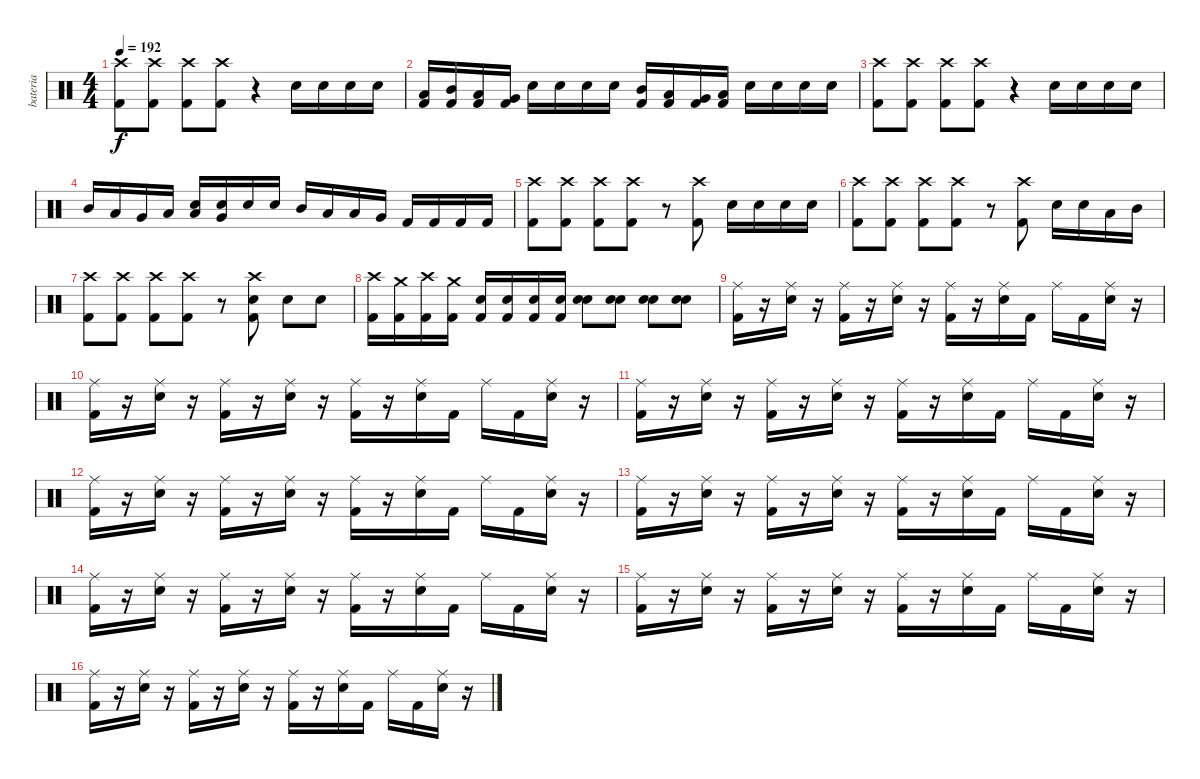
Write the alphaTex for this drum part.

\track ("bateria" "bateria") {instrument percussion}
\staff {score}
\articulation defaults
\ts (4 4)
\tempo 192
\clef neutral
\ks c
("Crash high (hit)" "Kick (hit) 2").8{dy f} ("Crash high (hit)" "Kick (hit) 2").8 ("Crash high (hit)" "Kick (hit) 2").8 ("Crash high (hit)" "Kick (hit) 2").8 r.4 "Snare (hit) 2".16 "Snare (hit) 2".16 "Snare (hit) 2".16 "Snare (hit) 2".16 |
("Low Tom (hit)" "Kick (hit) 2").16 ("Mid Tom (hit)" "Kick (hit) 2").16 ("Low Floor Tom (hit)" "Kick (hit) 2").16 ("Very Low Tom (hit)" "Kick (hit) 2").16 "Snare (hit) 2".16 "Snare (hit) 2".16 "Snare (hit) 2".16 "Snare (hit) 2".16 ("Mid Tom (hit)" "Kick (hit) 2").16 ("Low Tom (hit)" "Kick (hit) 2").16 ("Very Low Tom (hit)" "Kick (hit) 2").16 ("Low Floor Tom (hit)" "Kick (hit) 2").16 "Snare (hit) 2".16 "Snare (hit) 2".16 "Snare (hit) 2".16 "Snare (hit) 2".16 |
("Crash high (hit)" "Kick (hit) 2").8 ("Crash high (hit)" "Kick (hit) 2").8 ("Crash high (hit)" "Kick (hit) 2").8 ("Crash high (hit)" "Kick (hit) 2").8 r.4 "Snare (hit) 2".16 "Snare (hit) 2".16 "Snare (hit) 2".16 "Snare (hit) 2".16 |
"Mid Tom (hit)".16 "Low Tom (hit)".16 "Very Low Tom (hit)".16 "Low Floor Tom (hit)".16 ("Low Tom (hit)" "Snare (hit) 2").16 ("Very Low Tom (hit)" "Snare (hit) 2").16 "Snare (hit) 2".16 "Snare (hit) 2".16 "Mid Tom (hit)".16 "Low Tom (hit)".16 "Low Floor Tom (hit)".16 "Very Low Tom (hit)".16 "Kick (hit) 2".16 "Kick (hit) 2".16 "Kick (hit) 2".16 "Kick (hit) 2".16 |
("Crash high (hit)" "Kick (hit) 2").8 ("Crash high (hit)" "Kick (hit) 2").8 ("Crash high (hit)" "Kick (hit) 2").8 ("Crash high (hit)" "Kick (hit) 2").8 r.8 ("Crash high (hit)" "Kick (hit) 2").8 "Snare (hit) 2".16 "Snare (hit) 2".16 "Snare (hit) 2".16 "Snare (hit) 2".16 |
("Crash high (hit)" "Kick (hit) 2").8 ("Crash high (hit)" "Kick (hit) 2").8 ("Crash high (hit)" "Kick (hit) 2").8 ("Crash high (hit)" "Kick (hit) 2").8 r.8 ("Crash high (hit)" "Kick (hit) 2").8 "Snare (hit) 2".16 "Snare (hit) 2".16 "Low Tom (hit)".16 "Mid Tom (hit)".16 |
("Crash high (hit)" "Kick (hit) 2").8 ("Crash high (hit)" "Kick (hit) 2").8 ("Crash high (hit)" "Kick (hit) 2").8 ("Crash high (hit)" "Kick (hit) 2").8 r.8 ("Crash high (hit)" "Snare (hit) 2" "Kick (hit) 2").8 "Snare (hit) 2".8 "Snare (hit) 2".8 |
("Crash high (hit)" "Kick (hit) 2").16 ("Crash medium (hit)" "Kick (hit) 2").16 ("Crash high (hit)" "Kick (hit) 2").16 ("Crash medium (hit)" "Kick (hit) 2").16 ("Snare (hit) 2" "Kick (hit) 2").16 ("Snare (hit) 2" "Kick (hit) 2").16 ("Snare (hit) 2" "Kick (hit) 2").16 ("Snare (hit) 2" "Kick (hit) 2").16 ("Snare (hit) 2" "Electric Snare (hit)").8 ("Snare (hit) 2" "Electric Snare (hit)").8 ("Snare (hit) 2" "Electric Snare (hit)").8 ("Snare (hit) 2" "Electric Snare (hit)").8 |
("Ride (middle)" "Kick (hit) 2").16 r.16 ("Ride (middle)" "Snare (hit) 2").16 r.16 ("Ride (middle)" "Kick (hit) 2").16 r.16 ("Ride (middle)" "Snare (hit) 2").16 r.16 ("Ride (middle)" "Kick (hit) 2").16 r.16 ("Ride (middle)" "Snare (hit) 2").16 "Kick (hit) 2".16 "Ride (middle)".16 "Kick (hit) 2".16 ("Ride (middle)" "Snare (hit) 2").16 r.16 |
("Ride (middle)" "Kick (hit) 2").16 r.16 ("Ride (middle)" "Snare (hit) 2").16 r.16 ("Ride (middle)" "Kick (hit) 2").16 r.16 ("Ride (middle)" "Snare (hit) 2").16 r.16 ("Ride (middle)" "Kick (hit) 2").16 r.16 ("Ride (middle)" "Snare (hit) 2").16 "Kick (hit) 2".16 "Ride (middle)".16 "Kick (hit) 2".16 ("Ride (middle)" "Snare (hit) 2").16 r.16 |
("Ride (middle)" "Kick (hit) 2").16 r.16 ("Ride (middle)" "Snare (hit) 2").16 r.16 ("Ride (middle)" "Kick (hit) 2").16 r.16 ("Ride (middle)" "Snare (hit) 2").16 r.16 ("Ride (middle)" "Kick (hit) 2").16 r.16 ("Ride (middle)" "Snare (hit) 2").16 "Kick (hit) 2".16 "Ride (middle)".16 "Kick (hit) 2".16 ("Ride (middle)" "Snare (hit) 2").16 r.16 |
("Ride (middle)" "Kick (hit) 2").16 r.16 ("Ride (middle)" "Snare (hit) 2").16 r.16 ("Ride (middle)" "Kick (hit) 2").16 r.16 ("Ride (middle)" "Snare (hit) 2").16 r.16 ("Ride (middle)" "Kick (hit) 2").16 r.16 ("Ride (middle)" "Snare (hit) 2").16 "Kick (hit) 2".16 "Ride (middle)".16 "Kick (hit) 2".16 ("Ride (middle)" "Snare (hit) 2").16 r.16 |
("Ride (middle)" "Kick (hit) 2").16 r.16 ("Ride (middle)" "Snare (hit) 2").16 r.16 ("Ride (middle)" "Kick (hit) 2").16 r.16 ("Ride (middle)" "Snare (hit) 2").16 r.16 ("Ride (middle)" "Kick (hit) 2").16 r.16 ("Ride (middle)" "Snare (hit) 2").16 "Kick (hit) 2".16 "Ride (middle)".16 "Kick (hit) 2".16 ("Ride (middle)" "Snare (hit) 2").16 r.16 |
("Ride (middle)" "Kick (hit) 2").16 r.16 ("Ride (middle)" "Snare (hit) 2").16 r.16 ("Ride (middle)" "Kick (hit) 2").16 r.16 ("Ride (middle)" "Snare (hit) 2").16 r.16 ("Ride (middle)" "Kick (hit) 2").16 r.16 ("Ride (middle)" "Snare (hit) 2").16 "Kick (hit) 2".16 "Ride (middle)".16 "Kick (hit) 2".16 ("Ride (middle)" "Snare (hit) 2").16 r.16 |
("Ride (middle)" "Kick (hit) 2").16 r.16 ("Ride (middle)" "Snare (hit) 2").16 r.16 ("Ride (middle)" "Kick (hit) 2").16 r.16 ("Ride (middle)" "Snare (hit) 2").16 r.16 ("Ride (middle)" "Kick (hit) 2").16 r.16 ("Ride (middle)" "Snare (hit) 2").16 "Kick (hit) 2".16 "Ride (middle)".16 "Kick (hit) 2".16 ("Ride (middle)" "Snare (hit) 2").16 r.16 |
("Ride (middle)" "Kick (hit) 2").16 r.16 ("Ride (middle)" "Snare (hit) 2").16 r.16 ("Ride (middle)" "Kick (hit) 2").16 r.16 ("Ride (middle)" "Snare (hit) 2").16 r.16 ("Ride (middle)" "Kick (hit) 2").16 r.16 ("Ride (middle)" "Snare (hit) 2").16 "Kick (hit) 2".16 "Ride (middle)".16 "Kick (hit) 2".16 ("Ride (middle)" "Snare (hit) 2").16 r.16
